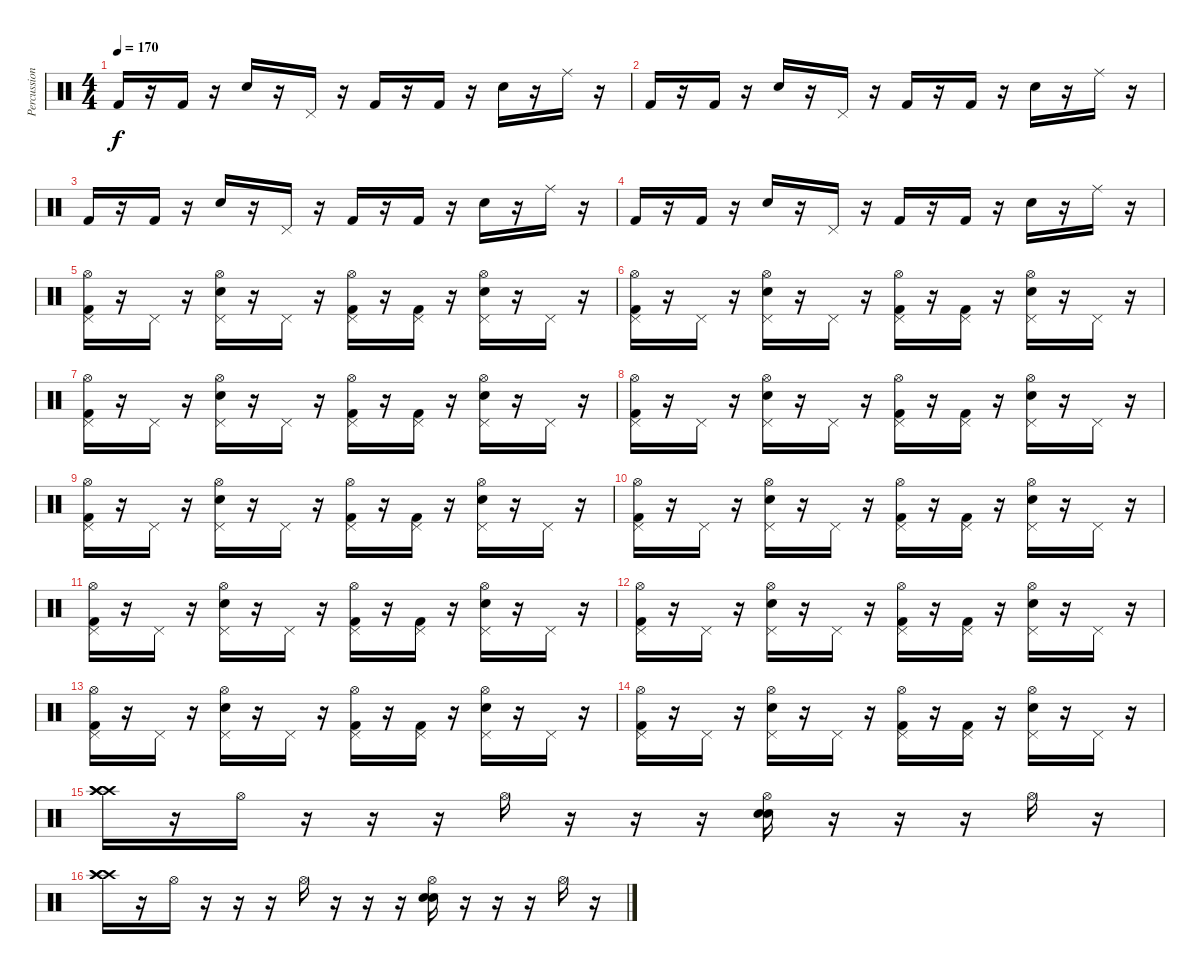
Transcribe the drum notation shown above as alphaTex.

\track ("Percussion" "Percussion") {instrument percussion}
\staff {score}
\articulation defaults
\ts (4 4)
\tempo 170
\clef neutral
\ks c "Kick (hit) 2".16{dy f}
r.16 "Kick (hit) 2".16 r.16 "Snare (hit) 2".16 r.16 "Pedal Hi-Hat (hit)".16 r.16 "Kick (hit) 2".16 r.16 "Kick (hit) 2".16 r.16 "Snare (hit) 2".16 r.16 "Ride (middle)".16 r.16 |
"Kick (hit) 2".16 r.16 "Kick (hit) 2".16 r.16 "Snare (hit) 2".16 r.16 "Pedal Hi-Hat (hit)".16 r.16 "Kick (hit) 2".16 r.16 "Kick (hit) 2".16 r.16 "Snare (hit) 2".16 r.16 "Ride (middle)".16 r.16 |
"Kick (hit) 2".16 r.16 "Kick (hit) 2".16 r.16 "Snare (hit) 2".16 r.16 "Pedal Hi-Hat (hit)".16 r.16 "Kick (hit) 2".16 r.16 "Kick (hit) 2".16 r.16 "Snare (hit) 2".16 r.16 "Ride (middle)".16 r.16 |
"Kick (hit) 2".16 r.16 "Kick (hit) 2".16 r.16 "Snare (hit) 2".16 r.16 "Pedal Hi-Hat (hit)".16 r.16 "Kick (hit) 2".16 r.16 "Kick (hit) 2".16 r.16 "Snare (hit) 2".16 r.16 "Ride (middle)".16 r.16 |
("Pedal Hi-Hat (hit)" "Hi-Hat (open)" "Kick (hit) 2").16 r.16 "Pedal Hi-Hat (hit)".16 r.16 ("Pedal Hi-Hat (hit)" "Hi-Hat (open)" "Snare (hit) 2").16 r.16 "Pedal Hi-Hat (hit)".16 r.16 ("Pedal Hi-Hat (hit)" "Hi-Hat (open)" "Kick (hit) 2").16 r.16 ("Pedal Hi-Hat (hit)" "Kick (hit) 2").16 r.16 ("Pedal Hi-Hat (hit)" "Hi-Hat (open)" "Snare (hit) 2").16 r.16 "Pedal Hi-Hat (hit)".16 r.16 |
("Pedal Hi-Hat (hit)" "Hi-Hat (open)" "Kick (hit) 2").16 r.16 "Pedal Hi-Hat (hit)".16 r.16 ("Pedal Hi-Hat (hit)" "Hi-Hat (open)" "Snare (hit) 2").16 r.16 "Pedal Hi-Hat (hit)".16 r.16 ("Pedal Hi-Hat (hit)" "Hi-Hat (open)" "Kick (hit) 2").16 r.16 ("Pedal Hi-Hat (hit)" "Kick (hit) 2").16 r.16 ("Pedal Hi-Hat (hit)" "Hi-Hat (open)" "Snare (hit) 2").16 r.16 "Pedal Hi-Hat (hit)".16 r.16 |
("Pedal Hi-Hat (hit)" "Hi-Hat (open)" "Kick (hit) 2").16 r.16 "Pedal Hi-Hat (hit)".16 r.16 ("Pedal Hi-Hat (hit)" "Hi-Hat (open)" "Snare (hit) 2").16 r.16 "Pedal Hi-Hat (hit)".16 r.16 ("Pedal Hi-Hat (hit)" "Hi-Hat (open)" "Kick (hit) 2").16 r.16 ("Pedal Hi-Hat (hit)" "Kick (hit) 2").16 r.16 ("Pedal Hi-Hat (hit)" "Hi-Hat (open)" "Snare (hit) 2").16 r.16 "Pedal Hi-Hat (hit)".16 r.16 |
("Pedal Hi-Hat (hit)" "Hi-Hat (open)" "Kick (hit) 2").16 r.16 "Pedal Hi-Hat (hit)".16 r.16 ("Pedal Hi-Hat (hit)" "Hi-Hat (open)" "Snare (hit) 2").16 r.16 "Pedal Hi-Hat (hit)".16 r.16 ("Pedal Hi-Hat (hit)" "Hi-Hat (open)" "Kick (hit) 2").16 r.16 ("Pedal Hi-Hat (hit)" "Kick (hit) 2").16 r.16 ("Pedal Hi-Hat (hit)" "Hi-Hat (open)" "Snare (hit) 2").16 r.16 "Pedal Hi-Hat (hit)".16 r.16 |
("Pedal Hi-Hat (hit)" "Hi-Hat (open)" "Kick (hit) 2").16 r.16 "Pedal Hi-Hat (hit)".16 r.16 ("Pedal Hi-Hat (hit)" "Hi-Hat (open)" "Snare (hit) 2").16 r.16 "Pedal Hi-Hat (hit)".16 r.16 ("Pedal Hi-Hat (hit)" "Hi-Hat (open)" "Kick (hit) 2").16 r.16 ("Pedal Hi-Hat (hit)" "Kick (hit) 2").16 r.16 ("Pedal Hi-Hat (hit)" "Hi-Hat (open)" "Snare (hit) 2").16 r.16 "Pedal Hi-Hat (hit)".16 r.16 |
("Pedal Hi-Hat (hit)" "Hi-Hat (open)" "Kick (hit) 2").16 r.16 "Pedal Hi-Hat (hit)".16 r.16 ("Pedal Hi-Hat (hit)" "Hi-Hat (open)" "Snare (hit) 2").16 r.16 "Pedal Hi-Hat (hit)".16 r.16 ("Pedal Hi-Hat (hit)" "Hi-Hat (open)" "Kick (hit) 2").16 r.16 ("Pedal Hi-Hat (hit)" "Kick (hit) 2").16 r.16 ("Pedal Hi-Hat (hit)" "Hi-Hat (open)" "Snare (hit) 2").16 r.16 "Pedal Hi-Hat (hit)".16 r.16 |
("Pedal Hi-Hat (hit)" "Hi-Hat (open)" "Kick (hit) 2").16 r.16 "Pedal Hi-Hat (hit)".16 r.16 ("Pedal Hi-Hat (hit)" "Hi-Hat (open)" "Snare (hit) 2").16 r.16 "Pedal Hi-Hat (hit)".16 r.16 ("Pedal Hi-Hat (hit)" "Hi-Hat (open)" "Kick (hit) 2").16 r.16 ("Pedal Hi-Hat (hit)" "Kick (hit) 2").16 r.16 ("Pedal Hi-Hat (hit)" "Hi-Hat (open)" "Snare (hit) 2").16 r.16 "Pedal Hi-Hat (hit)".16 r.16 |
("Pedal Hi-Hat (hit)" "Hi-Hat (open)" "Kick (hit) 2").16 r.16 "Pedal Hi-Hat (hit)".16 r.16 ("Pedal Hi-Hat (hit)" "Hi-Hat (open)" "Snare (hit) 2").16 r.16 "Pedal Hi-Hat (hit)".16 r.16 ("Pedal Hi-Hat (hit)" "Hi-Hat (open)" "Kick (hit) 2").16 r.16 ("Pedal Hi-Hat (hit)" "Kick (hit) 2").16 r.16 ("Pedal Hi-Hat (hit)" "Hi-Hat (open)" "Snare (hit) 2").16 r.16 "Pedal Hi-Hat (hit)".16 r.16 |
("Pedal Hi-Hat (hit)" "Hi-Hat (open)" "Kick (hit) 2").16 r.16 "Pedal Hi-Hat (hit)".16 r.16 ("Pedal Hi-Hat (hit)" "Hi-Hat (open)" "Snare (hit) 2").16 r.16 "Pedal Hi-Hat (hit)".16 r.16 ("Pedal Hi-Hat (hit)" "Hi-Hat (open)" "Kick (hit) 2").16 r.16 ("Pedal Hi-Hat (hit)" "Kick (hit) 2").16 r.16 ("Pedal Hi-Hat (hit)" "Hi-Hat (open)" "Snare (hit) 2").16 r.16 "Pedal Hi-Hat (hit)".16 r.16 |
("Pedal Hi-Hat (hit)" "Hi-Hat (open)" "Kick (hit) 2").16 r.16 "Pedal Hi-Hat (hit)".16 r.16 ("Pedal Hi-Hat (hit)" "Hi-Hat (open)" "Snare (hit) 2").16 r.16 "Pedal Hi-Hat (hit)".16 r.16 ("Pedal Hi-Hat (hit)" "Hi-Hat (open)" "Kick (hit) 2").16 r.16 ("Pedal Hi-Hat (hit)" "Kick (hit) 2").16 r.16 ("Pedal Hi-Hat (hit)" "Hi-Hat (open)" "Snare (hit) 2").16 r.16 "Pedal Hi-Hat (hit)".16 r.16 |
("Crash high (hit)" "Crash high (hit)" "Crash high (hit)").16 r.16 "Hi-Hat (open)".16 r.16 r.16 r.16 "Hi-Hat (open)".16 r.16 r.16 r.16 ("Hi-Hat (open)" "Snare (hit) 2" "Snare (hit) 2").16 r.16 r.16 r.16 "Hi-Hat (open)".16 r.16 |
("Crash high (hit)" "Crash high (hit)" "Crash high (hit)").16 r.16 "Hi-Hat (open)".16 r.16 r.16 r.16 "Hi-Hat (open)".16 r.16 r.16 r.16 ("Hi-Hat (open)" "Snare (hit) 2" "Snare (hit) 2").16 r.16 r.16 r.16 "Hi-Hat (open)".16 r.16
